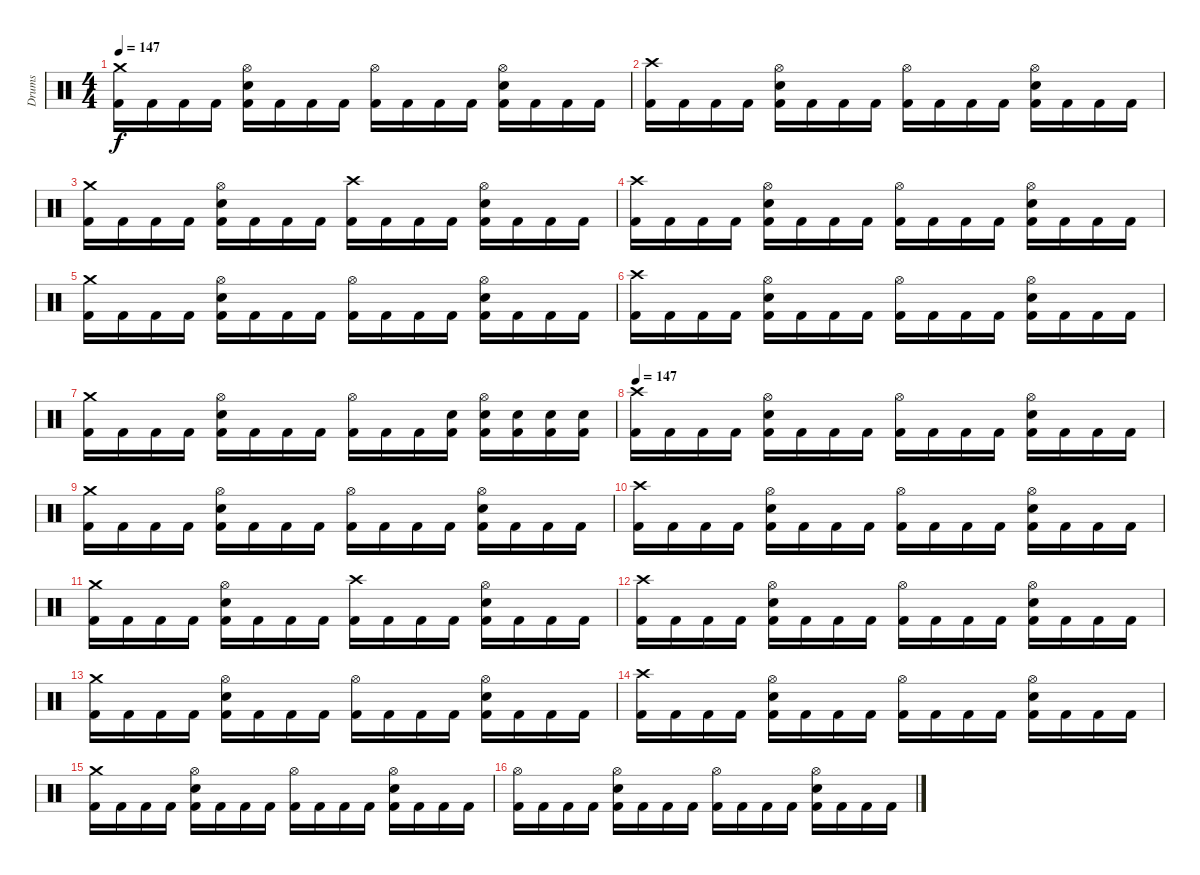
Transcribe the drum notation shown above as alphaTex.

\track ("Drums" "Drums") {instrument percussion}
\staff {score}
\articulation defaults
\ts (4 4)
\tempo 147
\clef neutral
\ks c
("Kick (hit) 2" "Crash medium (hit)").16{dy f} "Kick (hit) 2".16 "Kick (hit) 2".16 "Kick (hit) 2".16 ("Kick (hit) 2" "Electric Snare (hit)" "Hi-Hat (open)").16 "Kick (hit) 2".16 "Kick (hit) 2".16 "Kick (hit) 2".16 ("Kick (hit) 2" "Hi-Hat (open)").16 "Kick (hit) 2".16 "Kick (hit) 2".16 "Kick (hit) 2".16 ("Kick (hit) 2" "Electric Snare (hit)" "Hi-Hat (open)").16 "Kick (hit) 2".16 "Kick (hit) 2".16 "Kick (hit) 2".16 |
("Kick (hit) 2" "Crash high (hit)").16 "Kick (hit) 2".16 "Kick (hit) 2".16 "Kick (hit) 2".16 ("Kick (hit) 2" "Electric Snare (hit)" "Hi-Hat (open)").16 "Kick (hit) 2".16 "Kick (hit) 2".16 "Kick (hit) 2".16 ("Kick (hit) 2" "Hi-Hat (open)").16 "Kick (hit) 2".16 "Kick (hit) 2".16 "Kick (hit) 2".16 ("Kick (hit) 2" "Electric Snare (hit)" "Hi-Hat (open)").16 "Kick (hit) 2".16 "Kick (hit) 2".16 "Kick (hit) 2".16 |
("Kick (hit) 2" "Crash medium (hit)").16 "Kick (hit) 2".16 "Kick (hit) 2".16 "Kick (hit) 2".16 ("Kick (hit) 2" "Electric Snare (hit)" "Hi-Hat (open)").16 "Kick (hit) 2".16 "Kick (hit) 2".16 "Kick (hit) 2".16 ("Kick (hit) 2" "Crash high (hit)").16 "Kick (hit) 2".16 "Kick (hit) 2".16 "Kick (hit) 2".16 ("Kick (hit) 2" "Electric Snare (hit)" "Hi-Hat (open)").16 "Kick (hit) 2".16 "Kick (hit) 2".16 "Kick (hit) 2".16 |
("Kick (hit) 2" "Crash high (hit)").16 "Kick (hit) 2".16 "Kick (hit) 2".16 "Kick (hit) 2".16 ("Kick (hit) 2" "Electric Snare (hit)" "Hi-Hat (open)").16 "Kick (hit) 2".16 "Kick (hit) 2".16 "Kick (hit) 2".16 ("Kick (hit) 2" "Hi-Hat (open)").16 "Kick (hit) 2".16 "Kick (hit) 2".16 "Kick (hit) 2".16 ("Kick (hit) 2" "Electric Snare (hit)" "Hi-Hat (open)").16 "Kick (hit) 2".16 "Kick (hit) 2".16 "Kick (hit) 2".16 |
("Kick (hit) 2" "Crash medium (hit)").16 "Kick (hit) 2".16 "Kick (hit) 2".16 "Kick (hit) 2".16 ("Kick (hit) 2" "Electric Snare (hit)" "Hi-Hat (open)").16 "Kick (hit) 2".16 "Kick (hit) 2".16 "Kick (hit) 2".16 ("Kick (hit) 2" "Hi-Hat (open)").16 "Kick (hit) 2".16 "Kick (hit) 2".16 "Kick (hit) 2".16 ("Kick (hit) 2" "Electric Snare (hit)" "Hi-Hat (open)").16 "Kick (hit) 2".16 "Kick (hit) 2".16 "Kick (hit) 2".16 |
("Kick (hit) 2" "Crash high (hit)").16 "Kick (hit) 2".16 "Kick (hit) 2".16 "Kick (hit) 2".16 ("Kick (hit) 2" "Electric Snare (hit)" "Hi-Hat (open)").16 "Kick (hit) 2".16 "Kick (hit) 2".16 "Kick (hit) 2".16 ("Kick (hit) 2" "Hi-Hat (open)").16 "Kick (hit) 2".16 "Kick (hit) 2".16 "Kick (hit) 2".16 ("Kick (hit) 2" "Electric Snare (hit)" "Hi-Hat (open)").16 "Kick (hit) 2".16 "Kick (hit) 2".16 "Kick (hit) 2".16 |
("Kick (hit) 2" "Crash medium (hit)").16 "Kick (hit) 2".16 "Kick (hit) 2".16 "Kick (hit) 2".16 ("Kick (hit) 2" "Electric Snare (hit)" "Hi-Hat (open)").16 "Kick (hit) 2".16 "Kick (hit) 2".16 "Kick (hit) 2".16 ("Kick (hit) 2" "Hi-Hat (open)").16 "Kick (hit) 2".16 "Kick (hit) 2".16 ("Kick (hit) 2" "Electric Snare (hit)").16 ("Kick (hit) 2" "Electric Snare (hit)" "Hi-Hat (open)").16 ("Kick (hit) 2" "Electric Snare (hit)").16 ("Kick (hit) 2" "Electric Snare (hit)").16 ("Kick (hit) 2" "Electric Snare (hit)").16 |
\tempo 147
("Kick (hit) 2" "Crash high (hit)").16 "Kick (hit) 2".16 "Kick (hit) 2".16 "Kick (hit) 2".16 ("Kick (hit) 2" "Electric Snare (hit)" "Hi-Hat (open)").16 "Kick (hit) 2".16 "Kick (hit) 2".16 "Kick (hit) 2".16 ("Kick (hit) 2" "Hi-Hat (open)").16 "Kick (hit) 2".16 "Kick (hit) 2".16 "Kick (hit) 2".16 ("Kick (hit) 2" "Electric Snare (hit)" "Hi-Hat (open)").16 "Kick (hit) 2".16 "Kick (hit) 2".16 "Kick (hit) 2".16 |
("Kick (hit) 2" "Crash medium (hit)").16 "Kick (hit) 2".16 "Kick (hit) 2".16 "Kick (hit) 2".16 ("Kick (hit) 2" "Electric Snare (hit)" "Hi-Hat (open)").16 "Kick (hit) 2".16 "Kick (hit) 2".16 "Kick (hit) 2".16 ("Kick (hit) 2" "Hi-Hat (open)").16 "Kick (hit) 2".16 "Kick (hit) 2".16 "Kick (hit) 2".16 ("Kick (hit) 2" "Electric Snare (hit)" "Hi-Hat (open)").16 "Kick (hit) 2".16 "Kick (hit) 2".16 "Kick (hit) 2".16 |
("Kick (hit) 2" "Crash high (hit)").16 "Kick (hit) 2".16 "Kick (hit) 2".16 "Kick (hit) 2".16 ("Kick (hit) 2" "Electric Snare (hit)" "Hi-Hat (open)").16 "Kick (hit) 2".16 "Kick (hit) 2".16 "Kick (hit) 2".16 ("Kick (hit) 2" "Hi-Hat (open)").16 "Kick (hit) 2".16 "Kick (hit) 2".16 "Kick (hit) 2".16 ("Kick (hit) 2" "Electric Snare (hit)" "Hi-Hat (open)").16 "Kick (hit) 2".16 "Kick (hit) 2".16 "Kick (hit) 2".16 |
("Kick (hit) 2" "Crash medium (hit)").16 "Kick (hit) 2".16 "Kick (hit) 2".16 "Kick (hit) 2".16 ("Kick (hit) 2" "Electric Snare (hit)" "Hi-Hat (open)").16 "Kick (hit) 2".16 "Kick (hit) 2".16 "Kick (hit) 2".16 ("Kick (hit) 2" "Crash high (hit)").16 "Kick (hit) 2".16 "Kick (hit) 2".16 "Kick (hit) 2".16 ("Kick (hit) 2" "Electric Snare (hit)" "Hi-Hat (open)").16 "Kick (hit) 2".16 "Kick (hit) 2".16 "Kick (hit) 2".16 |
("Kick (hit) 2" "Crash high (hit)").16 "Kick (hit) 2".16 "Kick (hit) 2".16 "Kick (hit) 2".16 ("Kick (hit) 2" "Electric Snare (hit)" "Hi-Hat (open)").16 "Kick (hit) 2".16 "Kick (hit) 2".16 "Kick (hit) 2".16 ("Kick (hit) 2" "Hi-Hat (open)").16 "Kick (hit) 2".16 "Kick (hit) 2".16 "Kick (hit) 2".16 ("Kick (hit) 2" "Electric Snare (hit)" "Hi-Hat (open)").16 "Kick (hit) 2".16 "Kick (hit) 2".16 "Kick (hit) 2".16 |
("Kick (hit) 2" "Crash medium (hit)").16 "Kick (hit) 2".16 "Kick (hit) 2".16 "Kick (hit) 2".16 ("Kick (hit) 2" "Electric Snare (hit)" "Hi-Hat (open)").16 "Kick (hit) 2".16 "Kick (hit) 2".16 "Kick (hit) 2".16 ("Kick (hit) 2" "Hi-Hat (open)").16 "Kick (hit) 2".16 "Kick (hit) 2".16 "Kick (hit) 2".16 ("Kick (hit) 2" "Electric Snare (hit)" "Hi-Hat (open)").16 "Kick (hit) 2".16 "Kick (hit) 2".16 "Kick (hit) 2".16 |
("Kick (hit) 2" "Crash high (hit)").16 "Kick (hit) 2".16 "Kick (hit) 2".16 "Kick (hit) 2".16 ("Kick (hit) 2" "Electric Snare (hit)" "Hi-Hat (open)").16 "Kick (hit) 2".16 "Kick (hit) 2".16 "Kick (hit) 2".16 ("Kick (hit) 2" "Hi-Hat (open)").16 "Kick (hit) 2".16 "Kick (hit) 2".16 "Kick (hit) 2".16 ("Kick (hit) 2" "Electric Snare (hit)" "Hi-Hat (open)").16 "Kick (hit) 2".16 "Kick (hit) 2".16 "Kick (hit) 2".16 |
("Kick (hit) 2" "Crash medium (hit)").16 "Kick (hit) 2".16 "Kick (hit) 2".16 "Kick (hit) 2".16 ("Kick (hit) 2" "Electric Snare (hit)" "Hi-Hat (open)").16 "Kick (hit) 2".16 "Kick (hit) 2".16 "Kick (hit) 2".16 ("Kick (hit) 2" "Hi-Hat (open)").16 "Kick (hit) 2".16 "Kick (hit) 2".16 "Kick (hit) 2".16 ("Kick (hit) 2" "Electric Snare (hit)" "Hi-Hat (open)").16 "Kick (hit) 2".16 "Kick (hit) 2".16 "Kick (hit) 2".16 |
("Kick (hit) 2" "Hi-Hat (open)").16 "Kick (hit) 2".16 "Kick (hit) 2".16 "Kick (hit) 2".16 ("Kick (hit) 2" "Electric Snare (hit)" "Hi-Hat (open)").16 "Kick (hit) 2".16 "Kick (hit) 2".16 "Kick (hit) 2".16 ("Kick (hit) 2" "Hi-Hat (open)").16 "Kick (hit) 2".16 "Kick (hit) 2".16 "Kick (hit) 2".16 ("Kick (hit) 2" "Electric Snare (hit)" "Hi-Hat (open)").16 "Kick (hit) 2".16 "Kick (hit) 2".16 "Kick (hit) 2".16
